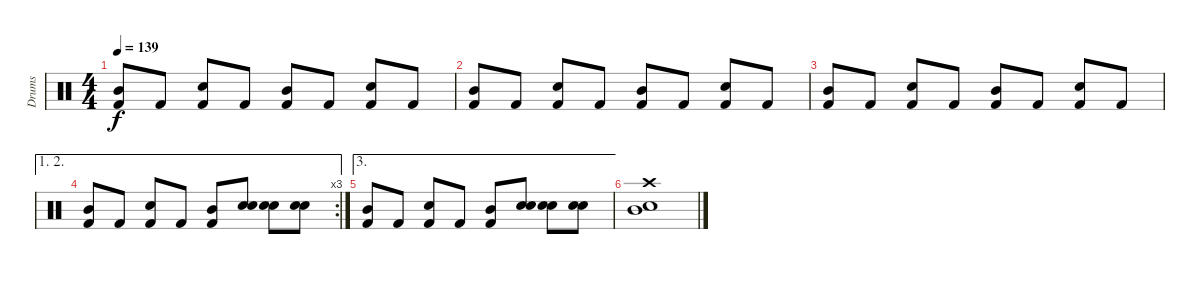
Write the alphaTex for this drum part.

\track ("Drums" "Drums") {instrument percussion}
\staff {score}
\articulation defaults
\ts (4 4)
\tempo 139
\clef neutral
\ks c
("Kick (hit) 2" "Mid Tom (hit)").8{dy f} "Kick (hit) 2".8 ("Electric Snare (hit)" "Kick (hit) 2").8 "Kick (hit) 2".8 ("Kick (hit) 2" "Mid Tom (hit)").8 "Kick (hit) 2".8 ("Electric Snare (hit)" "Kick (hit) 2").8 "Kick (hit) 2".8 |
("Kick (hit) 2" "Mid Tom (hit)").8 "Kick (hit) 2".8 ("Electric Snare (hit)" "Kick (hit) 2").8 "Kick (hit) 2".8 ("Kick (hit) 2" "Mid Tom (hit)").8 "Kick (hit) 2".8 ("Electric Snare (hit)" "Kick (hit) 2").8 "Kick (hit) 2".8 |
("Kick (hit) 2" "Mid Tom (hit)").8 "Kick (hit) 2".8 ("Electric Snare (hit)" "Kick (hit) 2").8 "Kick (hit) 2".8 ("Kick (hit) 2" "Mid Tom (hit)").8 "Kick (hit) 2".8 ("Electric Snare (hit)" "Kick (hit) 2").8 "Kick (hit) 2".8 |
\ae (1 2)
\rc 3
("Kick (hit) 2" "Mid Tom (hit)").8 "Kick (hit) 2".8 ("Electric Snare (hit)" "Kick (hit) 2").8 "Kick (hit) 2".8 ("Kick (hit) 2" "Mid Tom (hit)").8 ("Electric Snare (hit)" "Electric Snare (hit)").8 ("Electric Snare (hit)" "Electric Snare (hit)").8 ("Electric Snare (hit)" "Electric Snare (hit)").8 |
\ae 3
("Kick (hit) 2" "Mid Tom (hit)").8 "Kick (hit) 2".8 ("Electric Snare (hit)" "Kick (hit) 2").8 "Kick (hit) 2".8 ("Kick (hit) 2" "Mid Tom (hit)").8 ("Electric Snare (hit)" "Electric Snare (hit)").8 ("Electric Snare (hit)" "Electric Snare (hit)").8 ("Electric Snare (hit)" "Electric Snare (hit)").8 |
("Mid Tom (hit)" "Crash high (hit)" "Electric Snare (hit)").1
